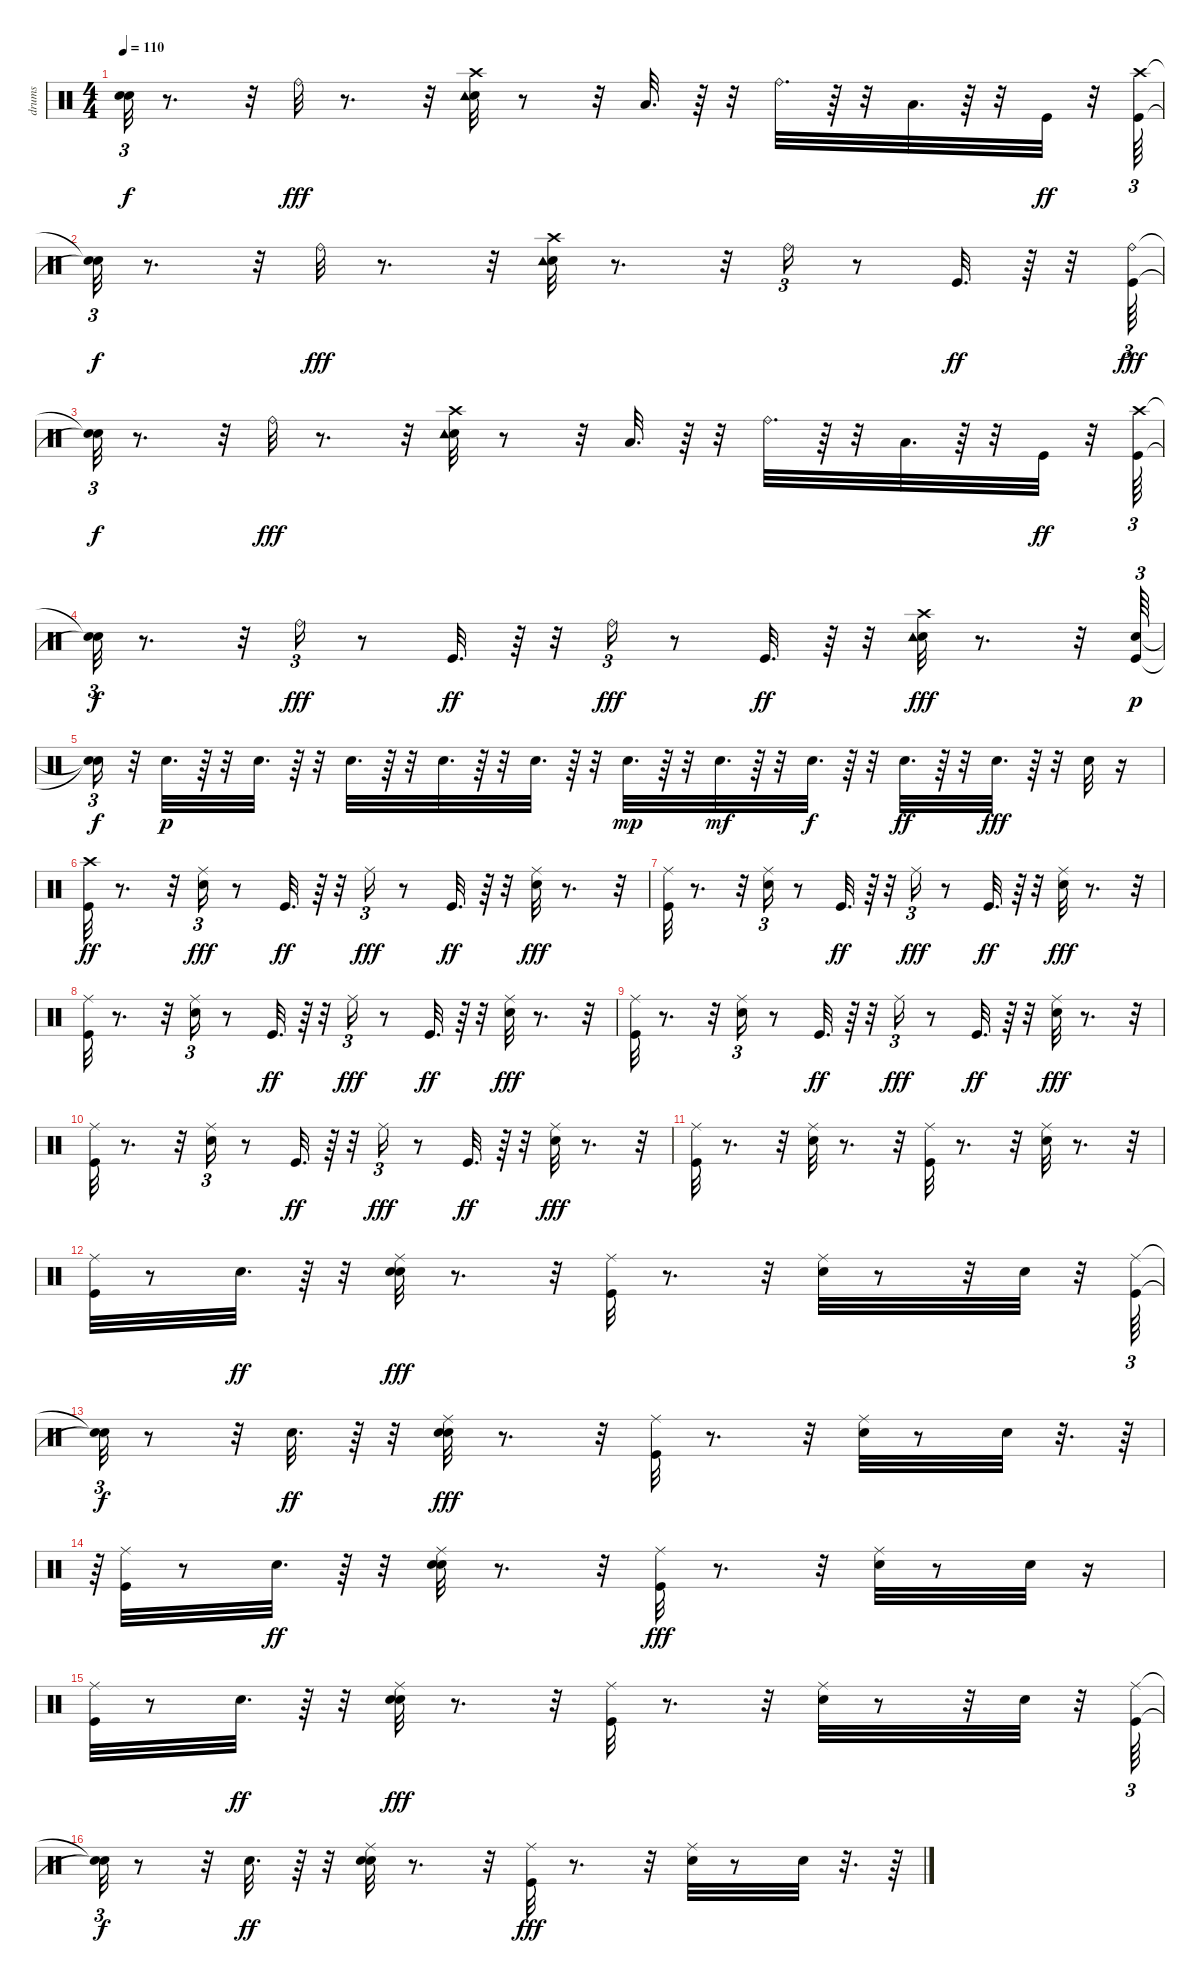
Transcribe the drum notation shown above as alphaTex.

\track ("drums    " "drums    ") {instrument percussion}
\staff {score}
\articulation defaults
\ts (4 4)
\tempo 110
\clef neutral
\ks c
("Snare (hit)"{t} "Snare (hit)"{t}).32{tu (3 2) dy f} r.8{d} r.32 "Ride (bell)".32{dy fff} r.8{d} r.32 ("Snare (hit) 2" "Crash high (hit)" "Tambourine (hit)").32 r.8 r.32 "Low Tom (hit)".32{d} r.64 r.32 "Ride (bell)".32{d} r.64 r.32 "Low Floor Tom (hit)".32{d} r.64 r.32 "Kick (hit)".32{dy ff} r.32 ("Kick (hit)" "Crash high (hit)").64{tu (3 2)} |
("Snare (hit)"{t} "Snare (hit)"{t}).32{tu (3 2) dy f} r.8{d} r.32 "Ride (bell)".32{dy fff} r.8{d} r.32 ("Snare (hit) 2" "Crash high (hit)" "Tambourine (hit)").32 r.8{d} r.32 "Ride (bell)".16{tu (3 2)} r.8 "Kick (hit)".32{d dy ff} r.64 r.32 ("Kick (hit)" "Ride (bell)").64{tu (3 2) dy fff} |
("Snare (hit)"{t} "Snare (hit)"{t}).32{tu (3 2) dy f} r.8{d} r.32 "Ride (bell)".32{dy fff} r.8{d} r.32 ("Snare (hit) 2" "Crash high (hit)" "Tambourine (hit)").32 r.8 r.32 "Low Tom (hit)".32{d} r.64 r.32 "Ride (bell)".32{d} r.64 r.32 "Low Floor Tom (hit)".32{d} r.64 r.32 "Kick (hit)".32{dy ff} r.32 ("Crash high (hit)" "Kick (hit)").64{tu (3 2)} |
("Snare (hit)"{t} "Snare (hit)"{t}).32{tu (3 2) dy f} r.8{d} r.32 "Ride (bell)".16{tu (3 2) dy fff} r.8 "Kick (hit)".32{d dy ff} r.64 r.32 "Ride (bell)".16{tu (3 2) dy fff} r.8 "Kick (hit)".32{d dy ff} r.64 r.32 ("Snare (hit) 2" "Crash high (hit)" "Tambourine (hit)").32{dy fff} r.8{d} r.32 ("Kick (hit)" "Snare (hit) 2").64{tu (3 2) dy p} |
("Snare (hit)"{t} "Snare (hit)"{t}).16{tu (3 2) dy f} r.32 "Snare (hit) 2".32{d dy p} r.64 r.32 "Snare (hit) 2".32{d} r.64 r.32 "Snare (hit) 2".32{d} r.64 r.32 "Snare (hit) 2".32{d} r.64 r.32 "Snare (hit) 2".32{d} r.64 r.32 "Snare (hit) 2".32{d dy mp} r.64 r.32 "Snare (hit) 2".32{d dy mf} r.64 r.32 "Snare (hit) 2".32{d dy f} r.64 r.32 "Snare (hit) 2".32{d dy ff} r.64 r.32 "Snare (hit) 2".32{d dy fff} r.64 r.32 "Snare (hit) 2".32 r.16 |
("Kick (hit)" "Crash high (hit)").32{dy ff} r.8{d} r.32 ("Snare (hit) 2" "Ride (middle)").16{tu (3 2) dy fff} r.8 "Kick (hit)".32{d dy ff} r.64 r.32 "Ride (middle)".16{tu (3 2) dy fff} r.8 "Kick (hit)".32{d dy ff} r.64 r.32 ("Ride (middle)" "Snare (hit) 2").32{dy fff} r.8{d} r.32 |
("Kick (hit)" "Ride (middle)").32 r.8{d} r.32 ("Snare (hit) 2" "Ride (middle)").16{tu (3 2)} r.8 "Kick (hit)".32{d dy ff} r.64 r.32 "Ride (middle)".16{tu (3 2) dy fff} r.8 "Kick (hit)".32{d dy ff} r.64 r.32 ("Snare (hit) 2" "Ride (middle)").32{dy fff} r.8{d} r.32 |
("Kick (hit)" "Ride (middle)").32 r.8{d} r.32 ("Snare (hit) 2" "Ride (middle)").16{tu (3 2)} r.8 "Kick (hit)".32{d dy ff} r.64 r.32 "Ride (middle)".16{tu (3 2) dy fff} r.8 "Kick (hit)".32{d dy ff} r.64 r.32 ("Snare (hit) 2" "Ride (middle)").32{dy fff} r.8{d} r.32 |
("Kick (hit)" "Ride (middle)").32 r.8{d} r.32 ("Snare (hit) 2" "Ride (middle)").16{tu (3 2)} r.8 "Kick (hit)".32{d dy ff} r.64 r.32 "Ride (middle)".16{tu (3 2) dy fff} r.8 "Kick (hit)".32{d dy ff} r.64 r.32 ("Snare (hit) 2" "Ride (middle)").32{dy fff} r.8{d} r.32 |
("Kick (hit)" "Ride (middle)").32 r.8{d} r.32 ("Snare (hit) 2" "Ride (middle)").16{tu (3 2)} r.8 "Kick (hit)".32{d dy ff} r.64 r.32 "Ride (middle)".16{tu (3 2) dy fff} r.8 "Kick (hit)".32{d dy ff} r.64 r.32 ("Snare (hit) 2" "Ride (middle)").32{dy fff} r.8{d} r.32 |
("Kick (hit)" "Ride (middle)").32 r.8{d} r.32 ("Snare (hit) 2" "Ride (middle)").32 r.8{d} r.32 ("Kick (hit)" "Ride (middle)").32 r.8{d} r.32 ("Snare (hit) 2" "Ride (middle)").32 r.8{d} r.32 |
("Kick (hit)" "Ride (middle)").32 r.8 "Hand Clap (hit)".32{d dy ff} r.64 r.32 ("Snare (hit) 2" "Hand Clap (hit)" "Ride (middle)").32{dy fff} r.8{d} r.32 ("Kick (hit)" "Ride (middle)").32 r.8{d} r.32 ("Snare (hit) 2" "Ride (middle)").32 r.8 r.32 "Snare (hit) 2".32 r.32 ("Kick (hit)" "Ride (middle)").64{tu (3 2)} |
("Snare (hit)"{t} "Snare (hit)"{t}).32{tu (3 2) dy f} r.8 r.32 "Hand Clap (hit)".32{d dy ff} r.64 r.32 ("Snare (hit) 2" "Hand Clap (hit)" "Ride (middle)").32{dy fff} r.8{d} r.32 ("Kick (hit)" "Ride (middle)").32 r.8{d} r.32 ("Snare (hit) 2" "Ride (middle)").32 r.8 "Snare (hit) 2".32 r.32{d} r.64 |
r.64{tu (3 2)} ("Kick (hit)" "Ride (middle)").32 r.8 "Hand Clap (hit)".32{d dy ff} r.64 r.32 ("Snare (hit) 2" "Ride (middle)" "Hand Clap (hit)").32 r.8{d} r.32 ("Kick (hit)" "Ride (middle)").32{dy fff} r.8{d} r.32 ("Snare (hit) 2" "Ride (middle)").32 r.8 "Snare (hit) 2".32 r.16 |
("Kick (hit)" "Ride (middle)").32 r.8 "Hand Clap (hit)".32{d dy ff} r.64 r.32 ("Snare (hit) 2" "Hand Clap (hit)" "Ride (middle)").32{dy fff} r.8{d} r.32 ("Kick (hit)" "Ride (middle)").32 r.8{d} r.32 ("Snare (hit) 2" "Ride (middle)").32 r.8 r.32 "Snare (hit) 2".32 r.32 ("Kick (hit)" "Ride (middle)").64{tu (3 2)} |
("Snare (hit)"{t} "Snare (hit)"{t}).32{tu (3 2) dy f} r.8 r.32 "Hand Clap (hit)".32{d dy ff} r.64 r.32 ("Snare (hit) 2" "Ride (middle)" "Hand Clap (hit)").32 r.8{d} r.32 ("Kick (hit)" "Ride (middle)").32{dy fff} r.8{d} r.32 ("Snare (hit) 2" "Ride (middle)").32 r.8 "Snare (hit) 2".32 r.32{d} r.64
